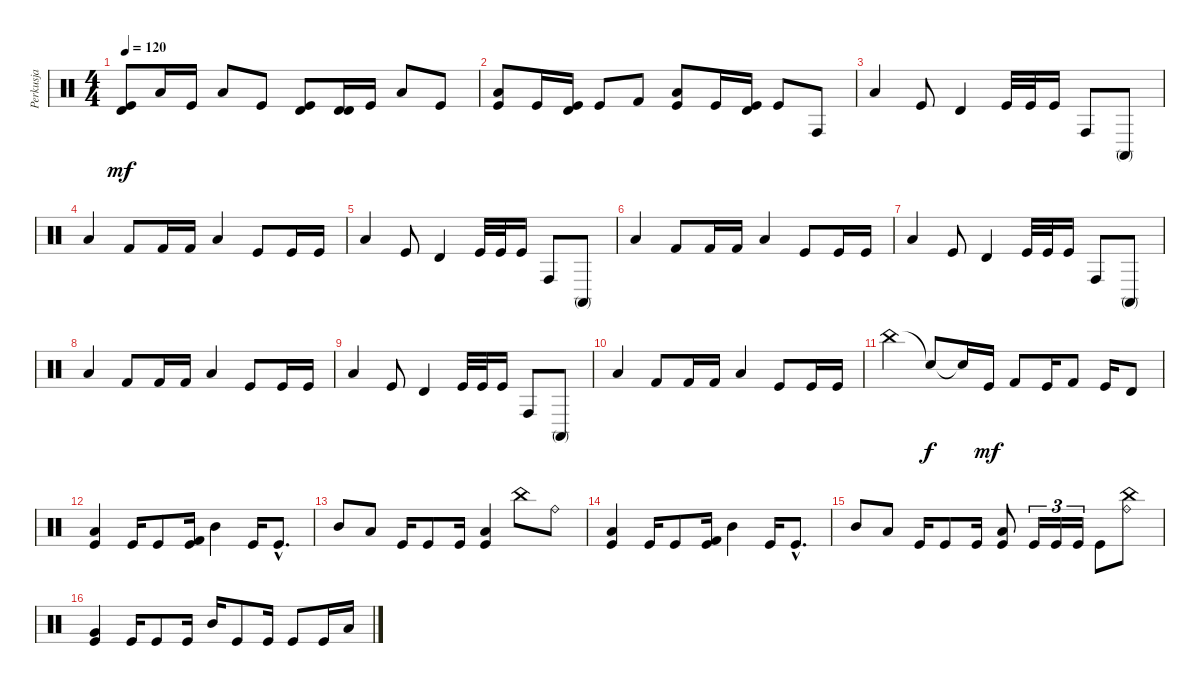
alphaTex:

\track ("Perkusja" "Perkusja") {instrument percussion}
\staff {score}
\articulation defaults
\ts (4 4)
\tempo 120
\clef neutral
\ks c
("Kick (hit)" "Timbale high (hit)").8{dy mf} "Low Tom (hit)".16 "Kick (hit)".16 "Low Tom (hit)".8 "Kick (hit)".8 ("Kick (hit)" "Timbale high (hit)").8 ("Timbale high (hit)" "Timbale high (hit)").16 "Kick (hit)".16 "Low Tom (hit)".8 "Kick (hit)".8 |
("Low Tom (hit)" "Kick (hit)").8 "Kick (hit)".16 ("Timbale high (hit)" "Kick (hit)").16 "Kick (hit)".8 "Kick (hit) 2".8 ("Low Tom (hit)" "Kick (hit)").8 "Kick (hit)".16 ("Timbale high (hit)" "Kick (hit)").16 "Kick (hit)".8 "Conga high (hit)".8 |
"Low Tom (hit)".4 "Kick (hit)".8 "Timbale high (hit)".4 "Kick (hit)".32 "Kick (hit)".32 "Kick (hit)".16 "Conga high (hit)".8 "Conga high (mute)".8 |
"Low Tom (hit)".4 "Kick (hit) 2".8 "Kick (hit) 2".16 "Kick (hit) 2".16 "Low Tom (hit)".4 "Kick (hit)".8 "Kick (hit)".16 "Kick (hit)".16 |
"Low Tom (hit)".4 "Kick (hit)".8 "Timbale high (hit)".4 "Kick (hit)".32 "Kick (hit)".32 "Kick (hit)".16 "Conga high (hit)".8 "Conga high (mute)".8 |
"Low Tom (hit)".4 "Kick (hit) 2".8 "Kick (hit) 2".16 "Kick (hit) 2".16 "Low Tom (hit)".4 "Kick (hit)".8 "Kick (hit)".16 "Kick (hit)".16 |
"Low Tom (hit)".4 "Kick (hit)".8 "Timbale high (hit)".4 "Kick (hit)".32 "Kick (hit)".32 "Kick (hit)".16 "Conga high (hit)".8 "Conga high (mute)".8 |
"Low Tom (hit)".4 "Kick (hit) 2".8 "Kick (hit) 2".16 "Kick (hit) 2".16 "Low Tom (hit)".4 "Kick (hit)".8 "Kick (hit)".16 "Kick (hit)".16 |
"Low Tom (hit)".4 "Kick (hit)".8 "Timbale high (hit)".4 "Kick (hit)".32 "Kick (hit)".32 "Kick (hit)".16 "Conga high (hit)".8 "Conga high (mute)".8 |
"Low Tom (hit)".4 "Kick (hit) 2".8 "Kick (hit) 2".16 "Kick (hit) 2".16 "Low Tom (hit)".4 "Kick (hit)".8 "Kick (hit)".16 "Kick (hit)".16 |
"China (hit)".4 "Snare (hit)"{t}.8{dy f} "Snare (hit)"{t}.16 "Kick (hit)".16{dy mf} "Kick (hit) 2".8 "Kick (hit)".16 "Kick (hit) 2".8 "Kick (hit)".16 "Timbale high (hit)".8 |
("Low Tom (hit)" "Kick (hit)").4 "Kick (hit)".16 "Kick (hit)".8 ("Kick (hit) 2" "Kick (hit)").16 "Mid Tom (hit)".4 "Kick (hit)".16 "Kick (hit)"{hac}.8{d} |
"Mid Tom (hit)".8 "Low Tom (hit)".8 "Kick (hit)".16 "Kick (hit)".8 "Kick (hit)".16 ("Low Tom (hit)" "Kick (hit)").4 "China (hit)".8 "Ride (bell)".8 |
("Low Tom (hit)" "Kick (hit)").4 "Kick (hit)".16 "Kick (hit)".8 ("Kick (hit) 2" "Kick (hit)").16 "Mid Tom (hit)".4 "Kick (hit)".16 "Kick (hit)"{hac}.8{d} |
"Mid Tom (hit)".8 "Low Tom (hit)".8 "Kick (hit)".16 "Kick (hit)".8 "Kick (hit)".16 ("Low Tom (hit)" "Kick (hit)").8 "Kick (hit)".16{tu (3 2)} "Kick (hit)".16{tu (3 2)} "Kick (hit)".16{tu (3 2)} "Kick (hit)".8 ("China (hit)" "Ride (bell)").8 |
("Very Low Tom (hit)" "Kick (hit)").4 "Kick (hit)".16 "Kick (hit)".8 "Kick (hit)".16 "Mid Tom (hit)".16 "Kick (hit)".8 "Kick (hit)".16 "Kick (hit)".8 "Kick (hit)".16 "Low Tom (hit)".16
